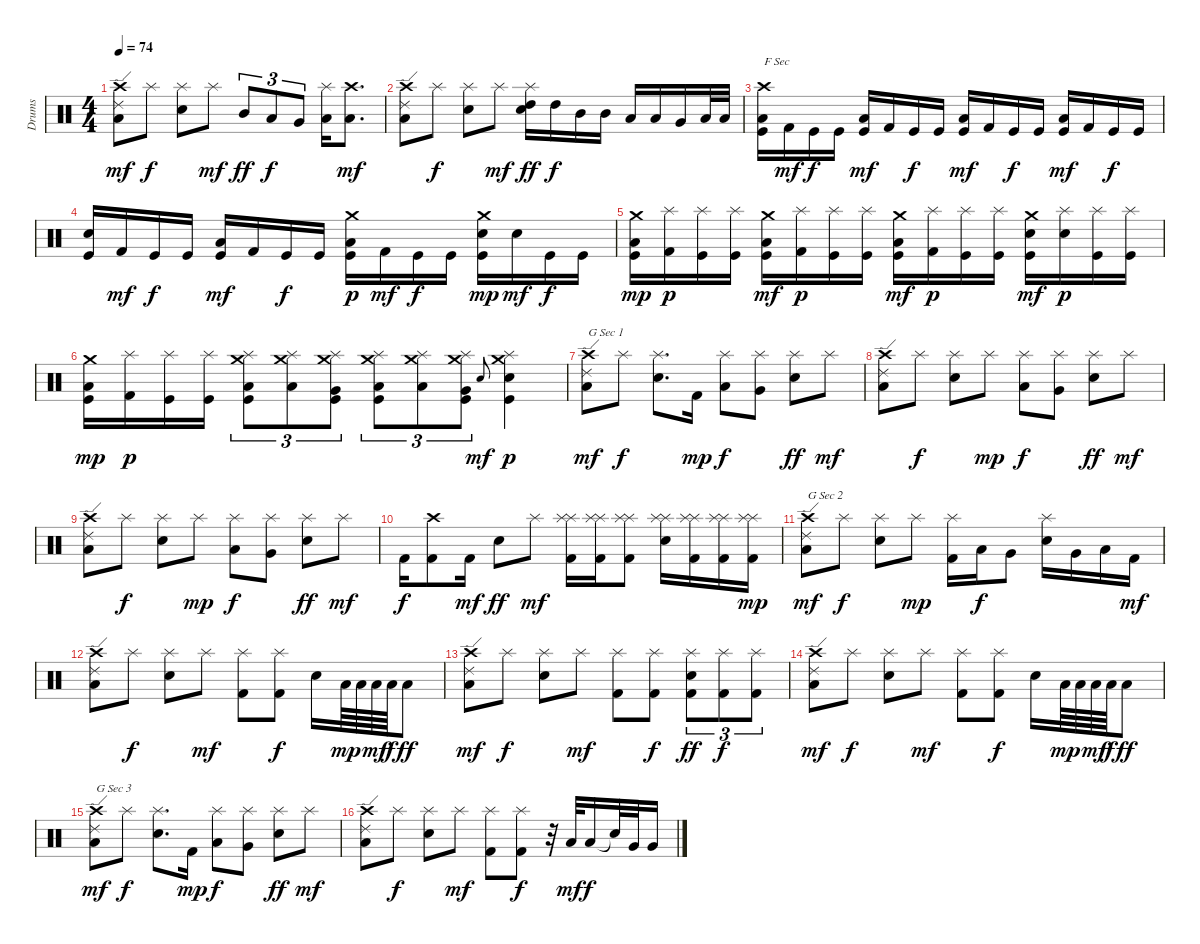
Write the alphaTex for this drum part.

\track ("Drums" "Drums") {instrument percussion}
\staff {score}
\articulation defaults
\ts (4 4)
\tempo 74
\clef neutral
\ks c
("Crash high (hit)" "Ride (edge) 2" "Low Tom (hit)").8{dy mf} "Splash (hit)".8{dy f} ("Electric Snare (hit)" "Splash (hit)").8 "Splash (hit)".8{dy mf} "Mid Tom (hit)".8{tu (3 2) dy ff} "Low Tom (hit)".8{tu (3 2) dy f} "Very Low Tom (hit)".8{tu (3 2)} ("Splash (hit)" "Low Tom (hit)").16 ("Crash high (hit)" "Low Floor Tom (hit)").8{d dy mf} |
("Crash high (hit)" "Ride (edge) 2" "Low Tom (hit)").8 "Splash (hit)".8{dy f} ("Electric Snare (hit)" "Splash (hit)").8 "Splash (hit)".8{dy mf} ("Splash (hit)" "High Tom (hit)" "Electric Snare (hit)").16{dy ff} "High Tom (hit)".16{dy f} "Mid Tom (hit)".16 "Mid Tom (hit)".16 "Low Tom (hit)".16 "Low Tom (hit)".16 "Very Low Tom (hit)".16 "Low Floor Tom (hit)".32 "Low Floor Tom (hit)".32 |
("Kick (hit)" "Crash high (hit)" "Low Tom (hit)").16{txt "F Sec"} "Kick (hit) 2".16{dy mf} "Kick (hit)".16{dy f} "Kick (hit)".16 ("Kick (hit)" "Low Tom (hit)").16{dy mf} "Kick (hit) 2".16 "Kick (hit)".16{dy f} "Kick (hit)".16 ("Kick (hit)" "Low Tom (hit)").16{dy mf} "Kick (hit) 2".16 "Kick (hit)".16{dy f} "Kick (hit)".16 ("Kick (hit)" "Low Tom (hit)").16{dy mf} "Kick (hit) 2".16 "Kick (hit)".16{dy f} "Kick (hit)".16 |
("Kick (hit)" "Snare (hit) 2").16 "Kick (hit) 2".16{dy mf} "Kick (hit)".16{dy f} "Kick (hit)".16 ("Kick (hit)" "Low Tom (hit)").16{dy mf} "Kick (hit) 2".16 "Kick (hit)".16{dy f} "Kick (hit)".16 ("Kick (hit)" "Low Tom (hit)" "Crash medium (hit)").16{dy p} "Kick (hit) 2".16{dy mf} "Kick (hit)".16{dy f} "Kick (hit)".16 ("Kick (hit)" "Electric Snare (hit)" "Crash medium (hit)").16{dy mp} "Electric Snare (hit)".16{dy mf} "Kick (hit)".16{dy f} "Kick (hit)".16 |
("Kick (hit)" "Low Tom (hit)" "Crash medium (hit)").16{dy mp} ("Kick (hit) 2" "Splash (hit)").16{dy p} ("Kick (hit)" "Splash (hit)").16 ("Kick (hit)" "Splash (hit)").16 ("Kick (hit)" "Low Tom (hit)" "Crash medium (hit)").16{dy mf} ("Kick (hit) 2" "Splash (hit)").16{dy p} ("Kick (hit)" "Splash (hit)").16 ("Kick (hit)" "Splash (hit)").16 ("Kick (hit)" "Low Tom (hit)" "Crash medium (hit)").16{dy mf} ("Kick (hit) 2" "Splash (hit)").16{dy p} ("Kick (hit)" "Splash (hit)").16 ("Kick (hit)" "Splash (hit)").16 ("Kick (hit)" "Electric Snare (hit)" "Crash medium (hit)").16{dy mf} ("Electric Snare (hit)" "Splash (hit)").16{dy p} ("Kick (hit)" "Splash (hit)").16 ("Kick (hit)" "Splash (hit)").16 |
("Kick (hit)" "Low Tom (hit)" "Crash medium (hit)").16{dy mp} ("Kick (hit) 2" "Splash (hit)").16{dy p} ("Kick (hit)" "Splash (hit)").16 ("Kick (hit)" "Splash (hit)").16 ("Kick (hit)" "Low Tom (hit)" "Crash medium (hit)" "Splash (hit)").8{tu (3 2)} ("Low Tom (hit)" "Crash medium (hit)" "Splash (hit)").8{tu (3 2)} ("Kick (hit)" "Very Low Tom (hit)" "Crash medium (hit)" "Splash (hit)").8{tu (3 2)} ("Kick (hit)" "Low Tom (hit)" "Crash medium (hit)" "Splash (hit)").8{tu (3 2)} ("Low Tom (hit)" "Crash medium (hit)" "Splash (hit)").8{tu (3 2)} ("Kick (hit)" "Very Low Tom (hit)" "Crash medium (hit)" "Splash (hit)").8{tu (3 2)} "Electric Snare (hit)".8{gr onbeat dy mf} ("Kick (hit)" "Splash (hit)" "Electric Snare (hit)" "Crash medium (hit)").4{dy p} |
("Crash high (hit)" "Ride (edge) 2" "Low Tom (hit)").8{txt "G Sec 1" dy mf} "Splash (hit)".8{dy f} ("Electric Snare (hit)" "Splash (hit)").8{d} "Kick (hit) 2".16{dy mp} ("Low Tom (hit)" "Splash (hit)").8{dy f} ("Very Low Tom (hit)" "Splash (hit)").8 ("Splash (hit)" "Electric Snare (hit)").8{dy ff} "Splash (hit)".8{dy mf} |
("Crash high (hit)" "Ride (edge) 2" "Low Tom (hit)").8 "Splash (hit)".8{dy f} ("Electric Snare (hit)" "Splash (hit)").8 "Splash (hit)".8{dy mp} ("Low Tom (hit)" "Splash (hit)").8{dy f} ("Very Low Tom (hit)" "Splash (hit)").8 ("Splash (hit)" "Electric Snare (hit)").8{dy ff} "Splash (hit)".8{dy mf} |
("Crash high (hit)" "Ride (edge) 2" "Low Tom (hit)").8 "Splash (hit)".8{dy f} ("Electric Snare (hit)" "Splash (hit)").8 "Splash (hit)".8{dy mp} ("Low Tom (hit)" "Splash (hit)").8{dy f} ("Very Low Tom (hit)" "Splash (hit)").8 ("Splash (hit)" "Electric Snare (hit)").8{dy ff} "Splash (hit)".8{dy mf} |
"Kick (hit) 2".16{dy f} ("Crash high (hit)" "Kick (hit) 2").8 "Kick (hit) 2".16{dy mf} "Electric Snare (hit)".8{dy ff} "Splash (hit)".8{dy mf} ("Splash (hit)" "Splash (hit)" "Kick (hit) 2").16 ("Splash (hit)" "Splash (hit)" "Kick (hit) 2").16 ("Splash (hit)" "Splash (hit)" "Kick (hit) 2").8 ("Splash (hit)" "Splash (hit)" "Electric Snare (hit)").16 ("Splash (hit)" "Splash (hit)" "Kick (hit) 2").16 ("Splash (hit)" "Splash (hit)" "Kick (hit) 2").16 ("Splash (hit)" "Splash (hit)" "Kick (hit) 2").16{dy mp} |
("Crash high (hit)" "Ride (edge) 2" "Low Tom (hit)").8{txt "G Sec 2" dy mf} "Splash (hit)".8{dy f} ("Electric Snare (hit)" "Splash (hit)").8 "Splash (hit)".8{dy mp} ("Splash (hit)" "Kick (hit) 2").16 "Low Tom (hit)".16{dy f} "Very Low Tom (hit)".8 ("Splash (hit)" "Electric Snare (hit)").16 "Very Low Tom (hit)".16 "Low Floor Tom (hit)".16 "Kick (hit) 2".16{dy mf} |
("Crash high (hit)" "Ride (edge) 2" "Low Tom (hit)").8 "Splash (hit)".8{dy f} ("Electric Snare (hit)" "Splash (hit)").8 "Splash (hit)".8{dy mf} ("Kick (hit) 2" "Splash (hit)").8 ("Kick (hit) 2" "Splash (hit)").8{dy f} "Electric Snare (hit)".16 "Low Tom (hit)".64{dy mp} "Low Tom (hit)".64 "Low Tom (hit)".64{dy mf} "Low Tom (hit)".64{dy f} "Low Tom (hit)".8{dy ff} |
("Crash high (hit)" "Ride (edge) 2" "Low Tom (hit)").8{dy mf} "Splash (hit)".8{dy f} ("Electric Snare (hit)" "Splash (hit)").8 "Splash (hit)".8{dy mf} ("Kick (hit) 2" "Splash (hit)").8 ("Kick (hit) 2" "Splash (hit)").8{dy f} ("Electric Snare (hit)" "Kick (hit) 2" "Splash (hit)").8{tu (3 2) dy ff} ("Kick (hit) 2" "Splash (hit)").8{tu (3 2) dy f} ("Kick (hit) 2" "Splash (hit)").8{tu (3 2)} |
("Crash high (hit)" "Ride (edge) 2" "Low Tom (hit)").8{dy mf} "Splash (hit)".8{dy f} ("Electric Snare (hit)" "Splash (hit)").8 "Splash (hit)".8{dy mf} ("Kick (hit) 2" "Splash (hit)").8 ("Kick (hit) 2" "Splash (hit)").8{dy f} "Electric Snare (hit)".16 "Low Tom (hit)".64{dy mp} "Low Tom (hit)".64 "Low Tom (hit)".64{dy mf} "Low Tom (hit)".64{dy f} "Low Tom (hit)".8{txt "" dy ff} |
("Crash high (hit)" "Ride (edge) 2" "Low Tom (hit)").8{txt "G Sec 3" dy mf} "Splash (hit)".8{dy f} ("Electric Snare (hit)" "Splash (hit)").8{d} "Kick (hit) 2".16{dy mp} ("Low Tom (hit)" "Splash (hit)").8{dy f} ("Very Low Tom (hit)" "Splash (hit)").8 ("Splash (hit)" "Electric Snare (hit)").8{dy ff} "Splash (hit)".8{dy mf} |
("Crash high (hit)" "Ride (edge) 2" "Low Tom (hit)").8 "Splash (hit)".8{dy f} ("Electric Snare (hit)" "Splash (hit)").8 "Splash (hit)".8{dy mf} ("Kick (hit) 2" "Splash (hit)").8 ("Kick (hit) 2" "Splash (hit)").8{dy f} r.32 "Low Tom (hit)".32{dy mf} "Low Tom (hit)".16{dy f} "Snare (hit)"{t}.32 "Very Low Tom (hit)".32 "Very Low Tom (hit)".16
